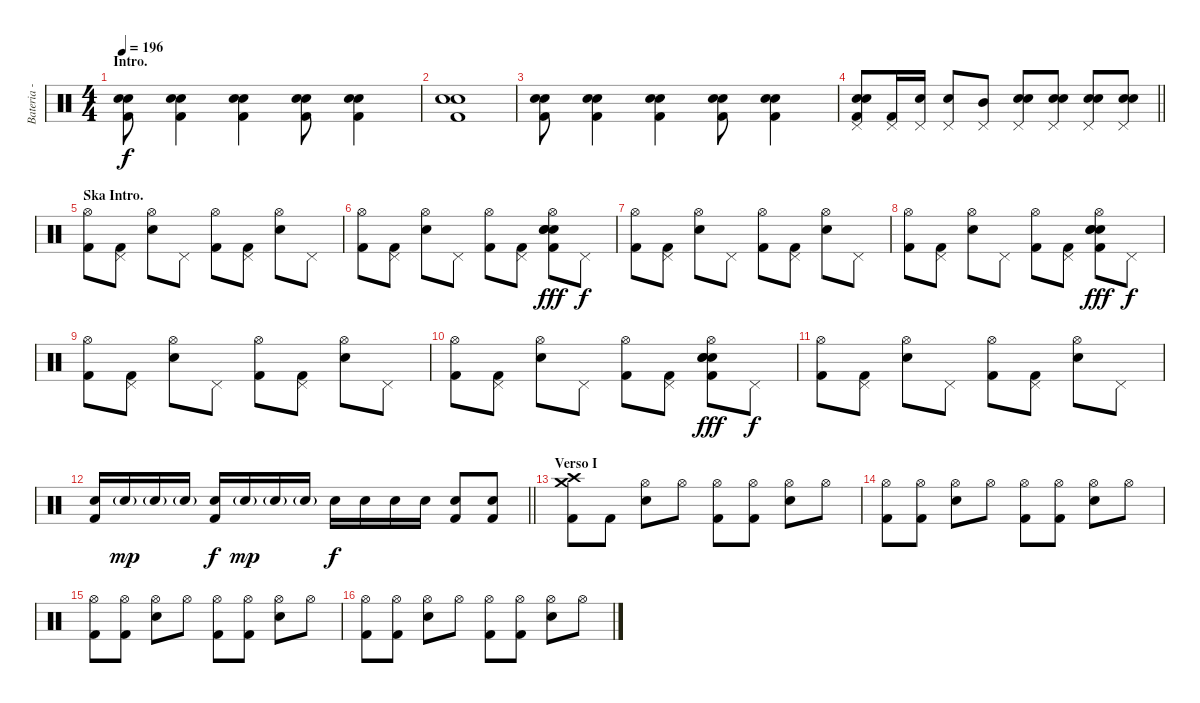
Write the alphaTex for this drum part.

\track ("Bateria - Larzon" "Bateria - ") {instrument percussion}
\staff {score}
\articulation defaults
\ts (4 4)
\section ("" "Intro.")
\tempo 196
\clef neutral
\ks c
("Electric Snare (hit)" "Kick (hit) 2" "Snare (hit) 2").8{dy f} ("Electric Snare (hit)" "Kick (hit) 2" "Snare (hit) 2").4 ("Electric Snare (hit)" "Kick (hit) 2" "Snare (hit) 2").4 ("Electric Snare (hit)" "Kick (hit) 2" "Snare (hit) 2").8 ("Electric Snare (hit)" "Kick (hit) 2" "Snare (hit) 2").4 |
("Electric Snare (hit)" "Kick (hit) 2" "Snare (hit) 2").1 |
("Electric Snare (hit)" "Kick (hit) 2" "Snare (hit) 2").8 ("Electric Snare (hit)" "Kick (hit) 2" "Snare (hit) 2").4 ("Electric Snare (hit)" "Kick (hit) 2" "Snare (hit) 2").4 ("Electric Snare (hit)" "Kick (hit) 2" "Snare (hit) 2").8 ("Electric Snare (hit)" "Kick (hit) 2" "Snare (hit) 2").4 |
\barLineRight lightlight
("Electric Snare (hit)" "Kick (hit) 2" "Snare (hit) 2" "Pedal Hi-Hat (hit)").8 ("Kick (hit) 2" "Pedal Hi-Hat (hit)").16 ("Electric Snare (hit)" "Pedal Hi-Hat (hit)").16 ("Electric Snare (hit)" "Pedal Hi-Hat (hit)").8 ("Mid Tom (hit)" "Pedal Hi-Hat (hit)").8 ("Electric Snare (hit)" "Snare (hit) 2" "Pedal Hi-Hat (hit)").8 ("Electric Snare (hit)" "Snare (hit) 2" "Pedal Hi-Hat (hit)").8 ("Electric Snare (hit)" "Snare (hit) 2" "Pedal Hi-Hat (hit)").8 ("Electric Snare (hit)" "Snare (hit) 2" "Pedal Hi-Hat (hit)").8 |
\section ("" "Ska Intro.")
("Kick (hit) 2" "Hi-Hat (open)").8 ("Kick (hit) 2" "Pedal Hi-Hat (hit)").8 ("Snare (hit) 2" "Hi-Hat (open)").8 "Pedal Hi-Hat (hit)".8 ("Kick (hit) 2" "Hi-Hat (open)").8 ("Kick (hit) 2" "Pedal Hi-Hat (hit)").8 ("Snare (hit) 2" "Hi-Hat (open)").8 "Pedal Hi-Hat (hit)".8 |
("Kick (hit) 2" "Hi-Hat (open)").8 ("Kick (hit) 2" "Pedal Hi-Hat (hit)").8 ("Snare (hit) 2" "Hi-Hat (open)").8 "Pedal Hi-Hat (hit)".8 ("Kick (hit) 2" "Hi-Hat (open)").8 ("Kick (hit) 2" "Pedal Hi-Hat (hit)").8 ("Snare (hit) 2" "Snare (hit) 2" "Electric Snare (hit)" "Kick (hit) 2" "Hi-Hat (open)").8{dy fff} "Pedal Hi-Hat (hit)".8{dy f} |
("Kick (hit) 2" "Hi-Hat (open)").8 ("Kick (hit) 2" "Pedal Hi-Hat (hit)").8 ("Snare (hit) 2" "Hi-Hat (open)").8 "Pedal Hi-Hat (hit)".8 ("Kick (hit) 2" "Hi-Hat (open)").8 ("Kick (hit) 2" "Pedal Hi-Hat (hit)").8 ("Snare (hit) 2" "Hi-Hat (open)").8 "Pedal Hi-Hat (hit)".8 |
("Kick (hit) 2" "Hi-Hat (open)").8 ("Kick (hit) 2" "Pedal Hi-Hat (hit)").8 ("Snare (hit) 2" "Hi-Hat (open)").8 "Pedal Hi-Hat (hit)".8 ("Kick (hit) 2" "Hi-Hat (open)").8 ("Kick (hit) 2" "Pedal Hi-Hat (hit)").8 ("Snare (hit) 2" "Snare (hit) 2" "Electric Snare (hit)" "Kick (hit) 2" "Hi-Hat (open)").8{dy fff} "Pedal Hi-Hat (hit)".8{dy f} |
("Kick (hit) 2" "Hi-Hat (open)").8 ("Kick (hit) 2" "Pedal Hi-Hat (hit)").8 ("Snare (hit) 2" "Hi-Hat (open)").8 "Pedal Hi-Hat (hit)".8 ("Kick (hit) 2" "Hi-Hat (open)").8 ("Kick (hit) 2" "Pedal Hi-Hat (hit)").8 ("Snare (hit) 2" "Hi-Hat (open)").8 "Pedal Hi-Hat (hit)".8 |
("Kick (hit) 2" "Hi-Hat (open)").8 ("Kick (hit) 2" "Pedal Hi-Hat (hit)").8 ("Snare (hit) 2" "Hi-Hat (open)").8 "Pedal Hi-Hat (hit)".8 ("Kick (hit) 2" "Hi-Hat (open)").8 ("Kick (hit) 2" "Pedal Hi-Hat (hit)").8 ("Snare (hit) 2" "Snare (hit) 2" "Electric Snare (hit)" "Kick (hit) 2" "Hi-Hat (open)").8{dy fff} "Pedal Hi-Hat (hit)".8{dy f} |
("Kick (hit) 2" "Hi-Hat (open)").8 ("Kick (hit) 2" "Pedal Hi-Hat (hit)").8 ("Snare (hit) 2" "Hi-Hat (open)").8 "Pedal Hi-Hat (hit)".8 ("Kick (hit) 2" "Hi-Hat (open)").8 ("Kick (hit) 2" "Pedal Hi-Hat (hit)").8 ("Snare (hit) 2" "Hi-Hat (open)").8 "Pedal Hi-Hat (hit)".8 |
\barLineRight lightlight
("Kick (hit) 2" "Snare (hit) 2").16 "Snare (hit) 2"{g}.16{dy mp} "Snare (hit) 2"{g}.16 "Snare (hit) 2"{g}.16 ("Kick (hit) 2" "Snare (hit) 2").16{dy f} "Snare (hit) 2"{g}.16{dy mp} "Snare (hit) 2"{g}.16 "Snare (hit) 2"{g}.16 "Snare (hit) 2".16{dy f} "Snare (hit) 2".16 "Snare (hit) 2".16 "Snare (hit) 2".16 ("Kick (hit) 2" "Snare (hit) 2").8 ("Kick (hit) 2" "Snare (hit) 2").8 |
\section ("" "Verso I")
("Kick (hit) 2" "Crash high (hit)" "Crash medium (hit)").8 "Kick (hit) 2".8 ("Snare (hit) 2" "Hi-Hat (open)").8 "Hi-Hat (open)".8 ("Kick (hit) 2" "Hi-Hat (open)").8 ("Kick (hit) 2" "Hi-Hat (open)").8 ("Snare (hit) 2" "Hi-Hat (open)").8 "Hi-Hat (open)".8 |
("Kick (hit) 2" "Hi-Hat (open)").8 ("Kick (hit) 2" "Hi-Hat (open)").8 ("Snare (hit) 2" "Hi-Hat (open)").8 "Hi-Hat (open)".8 ("Kick (hit) 2" "Hi-Hat (open)").8 ("Kick (hit) 2" "Hi-Hat (open)").8 ("Snare (hit) 2" "Hi-Hat (open)").8 "Hi-Hat (open)".8 |
("Kick (hit) 2" "Hi-Hat (open)").8 ("Kick (hit) 2" "Hi-Hat (open)").8 ("Snare (hit) 2" "Hi-Hat (open)").8 "Hi-Hat (open)".8 ("Kick (hit) 2" "Hi-Hat (open)").8 ("Kick (hit) 2" "Hi-Hat (open)").8 ("Snare (hit) 2" "Hi-Hat (open)").8 "Hi-Hat (open)".8 |
("Kick (hit) 2" "Hi-Hat (open)").8 ("Kick (hit) 2" "Hi-Hat (open)").8 ("Snare (hit) 2" "Hi-Hat (open)").8 "Hi-Hat (open)".8 ("Kick (hit) 2" "Hi-Hat (open)").8 ("Kick (hit) 2" "Hi-Hat (open)").8 ("Snare (hit) 2" "Hi-Hat (open)").8 "Hi-Hat (open)".8
